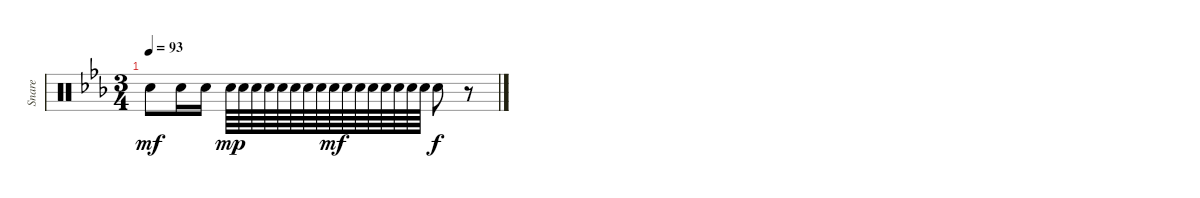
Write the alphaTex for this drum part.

\track ("Snare" "Snare") {instrument percussion}
\staff {score}
\articulation defaults
\ts (3 4)
\tempo 93
\clef neutral
\ks cminor "Electric Snare (hit)".8{dy mf} "Electric Snare (hit)".16 "Electric Snare (hit)".16 "Electric Snare (hit)".64{dy mp} "Electric Snare (hit)".64 "Electric Snare (hit)".64 "Electric Snare (hit)".64 "Electric Snare (hit)".64 "Electric Snare (hit)".64 "Electric Snare (hit)".64 "Electric Snare (hit)".64 "Electric Snare (hit)".64{dy mf} "Electric Snare (hit)".64 "Electric Snare (hit)".64 "Electric Snare (hit)".64 "Electric Snare (hit)".64 "Electric Snare (hit)".64 "Electric Snare (hit)".64 "Electric Snare (hit)".64 "Electric Snare (hit)".8{dy f}
r.8
